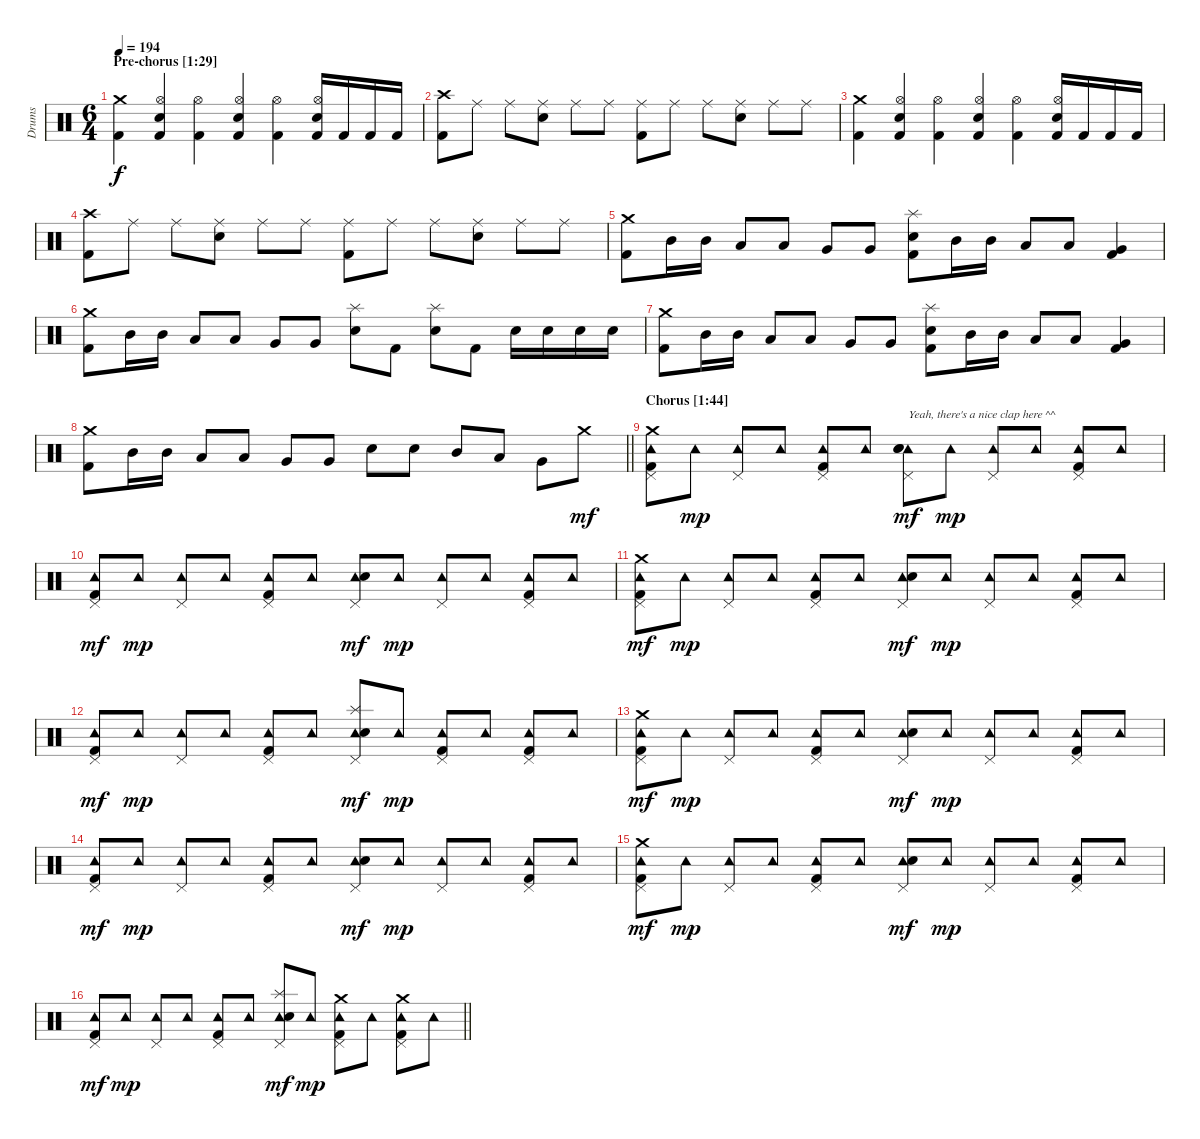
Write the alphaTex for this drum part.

\track ("Drums" "Drums") {instrument percussion}
\staff {score}
\articulation defaults
\ts (6 4)
\section ("" "Pre-chorus [1:29]")
\tempo 194
\clef neutral
\ks c
("Crash medium (hit)" "Kick (hit) 2").4{dy f} ("Hi-Hat (open)" "Electric Snare (hit)" "Kick (hit) 2").4 ("Hi-Hat (open)" "Kick (hit) 2").4 ("Hi-Hat (open)" "Electric Snare (hit)" "Kick (hit) 2").4 ("Hi-Hat (open)" "Kick (hit) 2").4 ("Hi-Hat (open)" "Electric Snare (hit)" "Kick (hit) 2").16 "Kick (hit) 2".16 "Kick (hit) 2".16 "Kick (hit) 2".16 |
("Crash high (hit)" "Kick (hit) 2").8 "Ride (middle)".8 "Ride (middle)".8 ("Ride (middle)" "Electric Snare (hit)").8 "Ride (middle)".8 "Ride (middle)".8 ("Ride (middle)" "Kick (hit) 2").8 "Ride (middle)".8 "Ride (middle)".8 ("Ride (middle)" "Electric Snare (hit)").8 "Ride (middle)".8 "Ride (middle)".8 |
("Crash medium (hit)" "Kick (hit) 2").4 ("Hi-Hat (open)" "Electric Snare (hit)" "Kick (hit) 2").4 ("Hi-Hat (open)" "Kick (hit) 2").4 ("Hi-Hat (open)" "Electric Snare (hit)" "Kick (hit) 2").4 ("Hi-Hat (open)" "Kick (hit) 2").4 ("Hi-Hat (open)" "Electric Snare (hit)" "Kick (hit) 2").16 "Kick (hit) 2".16 "Kick (hit) 2".16 "Kick (hit) 2".16 |
("Crash high (hit)" "Kick (hit) 2").8 "Ride (middle)".8 "Ride (middle)".8 ("Ride (middle)" "Electric Snare (hit)").8 "Ride (middle)".8 "Ride (middle)".8 ("Ride (middle)" "Kick (hit) 2").8 "Ride (middle)".8 "Ride (middle)".8 ("Ride (middle)" "Electric Snare (hit)").8 "Ride (middle)".8 "Ride (middle)".8 |
("Crash medium (hit)" "Kick (hit) 2").8 "Mid Tom (hit)".16 "Mid Tom (hit)".16 "Low Tom (hit)".8 "Low Tom (hit)".8 "Very Low Tom (hit)".8 "Very Low Tom (hit)".8 ("Splash (hit)" "Electric Snare (hit)" "Kick (hit) 2").8 "Mid Tom (hit)".16 "Mid Tom (hit)".16 "Low Tom (hit)".8 "Low Tom (hit)".8 ("Very Low Tom (hit)" "Kick (hit) 2").4 |
("Crash medium (hit)" "Kick (hit) 2").8 "Mid Tom (hit)".16 "Mid Tom (hit)".16 "Low Tom (hit)".8 "Low Tom (hit)".8 "Very Low Tom (hit)".8 "Very Low Tom (hit)".8 ("Splash (hit)" "Electric Snare (hit)").8 "Kick (hit) 2".8 ("Splash (hit)" "Electric Snare (hit)").8 "Kick (hit) 2".8 "Electric Snare (hit)".16 "Electric Snare (hit)".16 "Electric Snare (hit)".16 "Electric Snare (hit)".16 |
("Crash medium (hit)" "Kick (hit) 2").8 "Mid Tom (hit)".16 "Mid Tom (hit)".16 "Low Tom (hit)".8 "Low Tom (hit)".8 "Very Low Tom (hit)".8 "Very Low Tom (hit)".8 ("Splash (hit)" "Electric Snare (hit)" "Kick (hit) 2").8 "Mid Tom (hit)".16 "Mid Tom (hit)".16 "Low Tom (hit)".8 "Low Tom (hit)".8 ("Very Low Tom (hit)" "Kick (hit) 2").4 |
\barLineRight lightlight
("Crash medium (hit)" "Kick (hit) 2").8 "Mid Tom (hit)".16 "Mid Tom (hit)".16 "Low Tom (hit)".8 "Low Tom (hit)".8 "Very Low Tom (hit)".8 "Very Low Tom (hit)".8 "Electric Snare (hit)".8 "Electric Snare (hit)".8 "Mid Tom (hit)".8 "Low Tom (hit)".8 "Very Low Tom (hit)".8 "Crash medium (hit)".8{dy mf} |
\section ("" "Chorus [1:44]")
("Crash medium (hit)" "Tambourine (hit)" "Pedal Hi-Hat (hit)" "Kick (hit) 2").8 "Tambourine (hit)".8{dy mp} ("Tambourine (hit)" "Pedal Hi-Hat (hit)").8 "Tambourine (hit)".8 ("Tambourine (hit)" "Pedal Hi-Hat (hit)" "Kick (hit) 2").8 "Tambourine (hit)".8 ("Tambourine (hit)" "Pedal Hi-Hat (hit)" "Hand Clap (hit)" "Electric Snare (hit)").8{txt "Yeah, there's a nice clap here ^^" dy mf} "Tambourine (hit)".8{dy mp} ("Tambourine (hit)" "Pedal Hi-Hat (hit)").8 "Tambourine (hit)".8 ("Tambourine (hit)" "Pedal Hi-Hat (hit)" "Kick (hit) 2").8 "Tambourine (hit)".8 |
("Tambourine (hit)" "Pedal Hi-Hat (hit)" "Kick (hit) 2").8{dy mf} "Tambourine (hit)".8{dy mp} ("Tambourine (hit)" "Pedal Hi-Hat (hit)").8 "Tambourine (hit)".8 ("Tambourine (hit)" "Pedal Hi-Hat (hit)" "Kick (hit) 2").8 "Tambourine (hit)".8 ("Tambourine (hit)" "Pedal Hi-Hat (hit)" "Electric Snare (hit)").8{dy mf} "Tambourine (hit)".8{dy mp} ("Tambourine (hit)" "Pedal Hi-Hat (hit)").8 "Tambourine (hit)".8 ("Tambourine (hit)" "Pedal Hi-Hat (hit)" "Kick (hit) 2").8 "Tambourine (hit)".8 |
("Crash medium (hit)" "Tambourine (hit)" "Pedal Hi-Hat (hit)" "Kick (hit) 2").8{dy mf} "Tambourine (hit)".8{dy mp} ("Tambourine (hit)" "Pedal Hi-Hat (hit)").8 "Tambourine (hit)".8 ("Tambourine (hit)" "Pedal Hi-Hat (hit)" "Kick (hit) 2").8 "Tambourine (hit)".8 ("Tambourine (hit)" "Pedal Hi-Hat (hit)" "Electric Snare (hit)").8{dy mf} "Tambourine (hit)".8{dy mp} ("Tambourine (hit)" "Pedal Hi-Hat (hit)").8 "Tambourine (hit)".8 ("Tambourine (hit)" "Pedal Hi-Hat (hit)" "Kick (hit) 2").8 "Tambourine (hit)".8 |
("Tambourine (hit)" "Pedal Hi-Hat (hit)" "Kick (hit) 2").8{dy mf} "Tambourine (hit)".8{dy mp} ("Tambourine (hit)" "Pedal Hi-Hat (hit)").8 "Tambourine (hit)".8 ("Tambourine (hit)" "Pedal Hi-Hat (hit)" "Kick (hit) 2").8 "Tambourine (hit)".8 ("Splash (hit)" "Tambourine (hit)" "Pedal Hi-Hat (hit)" "Electric Snare (hit)").8{dy mf} "Tambourine (hit)".8{dy mp} ("Tambourine (hit)" "Pedal Hi-Hat (hit)" "Kick (hit) 2").8 "Tambourine (hit)".8 ("Tambourine (hit)" "Pedal Hi-Hat (hit)" "Kick (hit) 2").8 "Tambourine (hit)".8 |
("Crash medium (hit)" "Tambourine (hit)" "Pedal Hi-Hat (hit)" "Kick (hit) 2").8{dy mf} "Tambourine (hit)".8{dy mp} ("Tambourine (hit)" "Pedal Hi-Hat (hit)").8 "Tambourine (hit)".8 ("Tambourine (hit)" "Pedal Hi-Hat (hit)" "Kick (hit) 2").8 "Tambourine (hit)".8 ("Tambourine (hit)" "Pedal Hi-Hat (hit)" "Electric Snare (hit)").8{dy mf} "Tambourine (hit)".8{dy mp} ("Tambourine (hit)" "Pedal Hi-Hat (hit)").8 "Tambourine (hit)".8 ("Tambourine (hit)" "Pedal Hi-Hat (hit)" "Kick (hit) 2").8 "Tambourine (hit)".8 |
("Tambourine (hit)" "Pedal Hi-Hat (hit)" "Kick (hit) 2").8{dy mf} "Tambourine (hit)".8{dy mp} ("Tambourine (hit)" "Pedal Hi-Hat (hit)").8 "Tambourine (hit)".8 ("Tambourine (hit)" "Pedal Hi-Hat (hit)" "Kick (hit) 2").8 "Tambourine (hit)".8 ("Tambourine (hit)" "Pedal Hi-Hat (hit)" "Electric Snare (hit)").8{dy mf} "Tambourine (hit)".8{dy mp} ("Tambourine (hit)" "Pedal Hi-Hat (hit)").8 "Tambourine (hit)".8 ("Tambourine (hit)" "Pedal Hi-Hat (hit)" "Kick (hit) 2").8 "Tambourine (hit)".8 |
("Crash medium (hit)" "Tambourine (hit)" "Pedal Hi-Hat (hit)" "Kick (hit) 2").8{dy mf} "Tambourine (hit)".8{dy mp} ("Tambourine (hit)" "Pedal Hi-Hat (hit)").8 "Tambourine (hit)".8 ("Tambourine (hit)" "Pedal Hi-Hat (hit)" "Kick (hit) 2").8 "Tambourine (hit)".8 ("Tambourine (hit)" "Pedal Hi-Hat (hit)" "Electric Snare (hit)").8{dy mf} "Tambourine (hit)".8{dy mp} ("Tambourine (hit)" "Pedal Hi-Hat (hit)").8 "Tambourine (hit)".8 ("Tambourine (hit)" "Pedal Hi-Hat (hit)" "Kick (hit) 2").8 "Tambourine (hit)".8 |
\barLineRight lightlight
("Tambourine (hit)" "Pedal Hi-Hat (hit)" "Kick (hit) 2").8{dy mf} "Tambourine (hit)".8{dy mp} ("Tambourine (hit)" "Pedal Hi-Hat (hit)").8 "Tambourine (hit)".8 ("Tambourine (hit)" "Pedal Hi-Hat (hit)" "Kick (hit) 2").8 "Tambourine (hit)".8 ("Splash (hit)" "Tambourine (hit)" "Pedal Hi-Hat (hit)" "Electric Snare (hit)").8{dy mf} "Tambourine (hit)".8{dy mp} ("Crash medium (hit)" "Tambourine (hit)" "Pedal Hi-Hat (hit)" "Kick (hit) 2").8 "Tambourine (hit)".8 ("Crash medium (hit)" "Tambourine (hit)" "Pedal Hi-Hat (hit)" "Kick (hit) 2").8 "Tambourine (hit)".8
